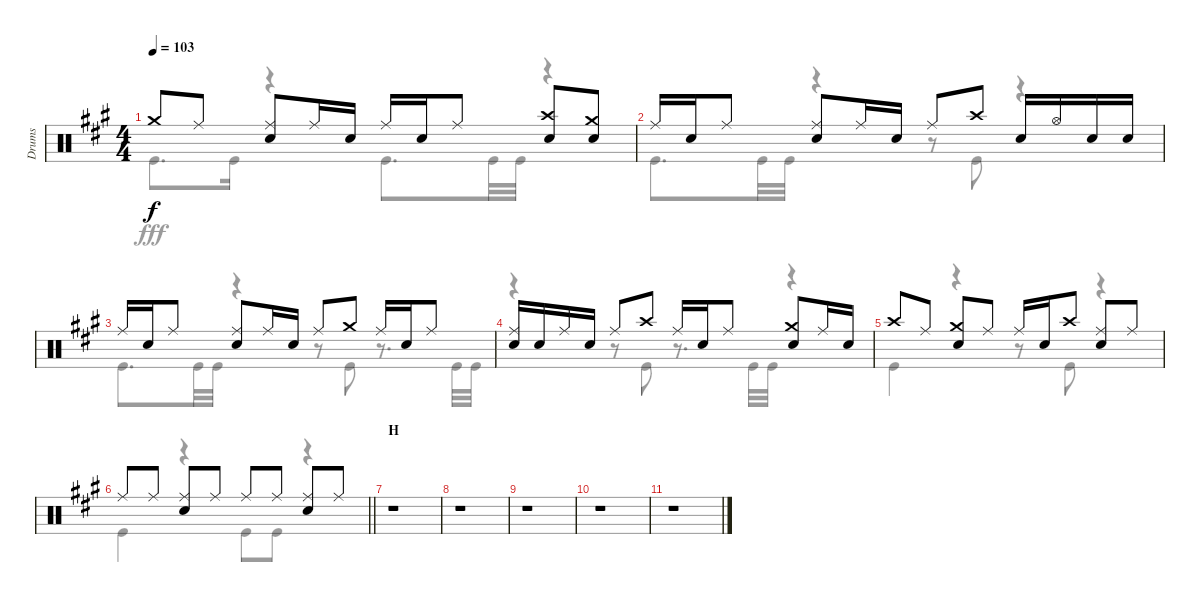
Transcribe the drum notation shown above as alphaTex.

\track ("Drums" "Drums") {instrument percussion}
\staff {score}
\articulation defaults
\voice
\ts (4 4)
\tempo 103
\clef neutral
\ks a "Crash medium (hit)".8{dy f} "Ride (middle)".8
("Ride (middle)" "Snare (hit) 2").8 "Ride (middle)".16 "Snare (hit) 2".16 "Ride (middle)".16 "Snare (hit) 2".16 "Ride (middle)".8 ("Crash high (hit)" "Snare (hit) 2").8 ("Crash medium (hit)" "Snare (hit) 2").8 |
"Ride (middle)".16 "Snare (hit) 2".16 "Ride (middle)".8 ("Ride (middle)" "Snare (hit) 2").8 "Ride (middle)".16 "Snare (hit) 2".16 "Ride (middle)".8 "Crash high (hit)".8 "Snare (hit) 2".16 "Hi-Hat (open)".16 "Snare (hit) 2".16 "Snare (hit) 2".16 |
"Ride (middle)".16{volume 0} "Snare (hit) 2".16 "Ride (middle)".8 ("Ride (middle)" "Snare (hit) 2").8 "Ride (middle)".16 "Snare (hit) 2".16 "Ride (middle)".8 "Crash medium (hit)".8 "Ride (middle)".16 "Snare (hit) 2".16 "Ride (middle)".8 |
("Ride (middle)" "Snare (hit) 2").16 "Snare (hit) 2".16 "Ride (middle)".16 "Snare (hit) 2".16 "Ride (middle)".8 "Crash high (hit)".8 "Ride (middle)".16 "Snare (hit) 2".16 "Ride (middle)".8 ("Crash medium (hit)" "Snare (hit) 2").8 "Ride (middle)".16 "Snare (hit) 2".16 |
"Crash high (hit)".8 "Ride (middle)".8 ("Crash medium (hit)" "Snare (hit) 2").8 "Ride (middle)".8 "Ride (middle)".16 "Snare (hit) 2".16 "Crash high (hit)".8 ("Ride (middle)" "Snare (hit) 2").8 "Ride (middle)".8 |
\barLineRight lightlight "Ride (middle)".8 "Ride (middle)".8
("Ride (middle)" "Snare (hit) 2").8 "Ride (middle)".8 "Ride (middle)".8 "Ride (middle)".8 ("Ride (middle)" "Snare (hit) 2").8 "Ride (middle)".8 |
\section ("" "H")
r.1 |
r.1 |
r.1 |
r.1 |
r.1
\voice
\clef neutral
\ottava regular
\simile none
\ks a "Kick (hit)".8{d dy fff} "Kick (hit)".16
r.4 "Kick (hit)".8{d} "Kick (hit)".32 "Kick (hit)".32 r.4 |
"Kick (hit)".8{d} "Kick (hit)".32 "Kick (hit)".32 r.4 r.8 "Kick (hit)".8 r.4 |
"Kick (hit)".8{d} "Kick (hit)".32 "Kick (hit)".32 r.4 r.8 "Kick (hit)".8 r.8{d} "Kick (hit)".32 "Kick (hit)".32 |
r.4 r.8 "Kick (hit)".8 r.8{d} "Kick (hit)".32 "Kick (hit)".32 r.4 |
"Kick (hit)".4 r.4 r.8 "Kick (hit)".8 r.4 |
\barLineRight lightlight "Kick (hit)".4
r.4 "Kick (hit)".8 "Kick (hit)".8 r.4 |
r.1 |
r.1 |
r.1 |
r.1 |
r.1
